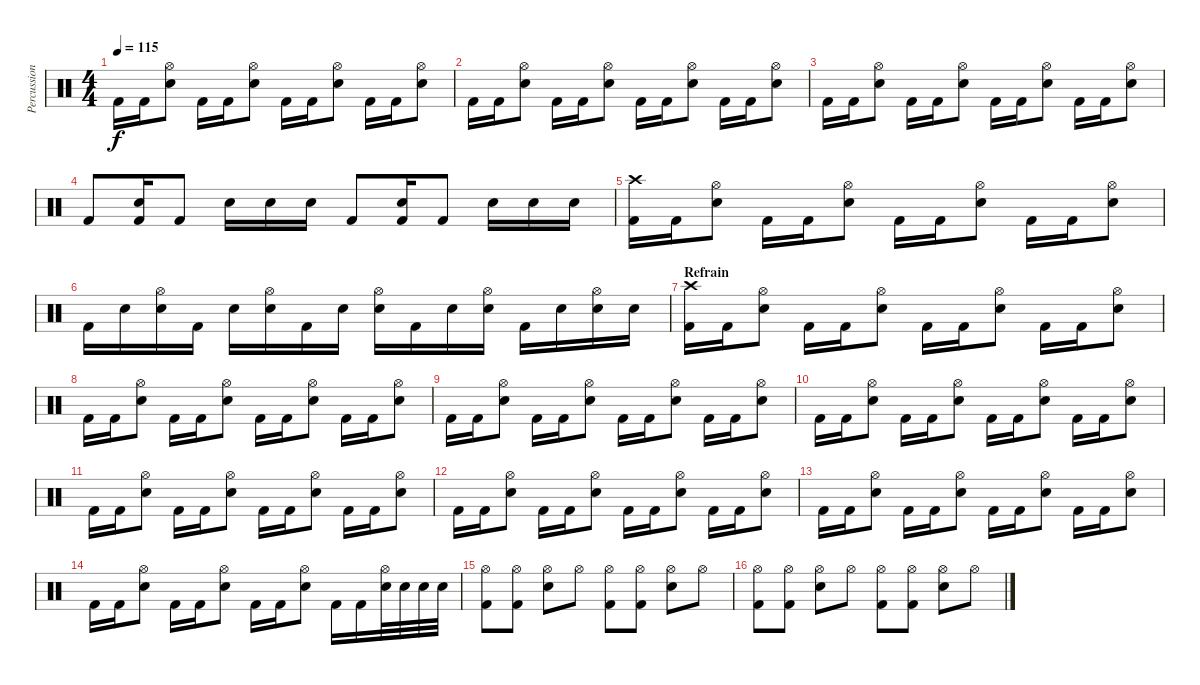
\track ("Percussions" "Percussion") {instrument percussion}
\staff {score}
\articulation defaults
\ts (4 4)
\tempo 115
\clef neutral
\ks c "Kick (hit) 2".16{dy f} "Kick (hit) 2".16
("Hi-Hat (open)" "Snare (hit) 2").8 "Kick (hit) 2".16 "Kick (hit) 2".16 ("Hi-Hat (open)" "Snare (hit) 2").8 "Kick (hit) 2".16 "Kick (hit) 2".16 ("Hi-Hat (open)" "Snare (hit) 2").8 "Kick (hit) 2".16 "Kick (hit) 2".16 ("Hi-Hat (open)" "Snare (hit) 2").8 |
"Kick (hit) 2".16 "Kick (hit) 2".16 ("Hi-Hat (open)" "Snare (hit) 2").8 "Kick (hit) 2".16 "Kick (hit) 2".16 ("Hi-Hat (open)" "Snare (hit) 2").8 "Kick (hit) 2".16 "Kick (hit) 2".16 ("Hi-Hat (open)" "Snare (hit) 2").8 "Kick (hit) 2".16 "Kick (hit) 2".16 ("Hi-Hat (open)" "Snare (hit) 2").8 |
"Kick (hit) 2".16 "Kick (hit) 2".16 ("Hi-Hat (open)" "Snare (hit) 2").8 "Kick (hit) 2".16 "Kick (hit) 2".16 ("Hi-Hat (open)" "Snare (hit) 2").8 "Kick (hit) 2".16 "Kick (hit) 2".16 ("Hi-Hat (open)" "Snare (hit) 2").8 "Kick (hit) 2".16 "Kick (hit) 2".16 ("Hi-Hat (open)" "Snare (hit) 2").8 |
"Kick (hit) 2".8 ("Snare (hit) 2" "Kick (hit) 2").16 "Kick (hit) 2".8 "Snare (hit) 2".16 "Snare (hit) 2".16 "Snare (hit) 2".16 "Kick (hit) 2".8 ("Snare (hit) 2" "Kick (hit) 2").16 "Kick (hit) 2".8 "Snare (hit) 2".16 "Snare (hit) 2".16 "Snare (hit) 2".16 |
("Crash high (hit)" "Kick (hit) 2").16 "Kick (hit) 2".16 ("Hi-Hat (open)" "Snare (hit) 2").8 "Kick (hit) 2".16 "Kick (hit) 2".16 ("Hi-Hat (open)" "Snare (hit) 2").8 "Kick (hit) 2".16 "Kick (hit) 2".16 ("Hi-Hat (open)" "Snare (hit) 2").8 "Kick (hit) 2".16 "Kick (hit) 2".16 ("Hi-Hat (open)" "Snare (hit) 2").8 |
"Kick (hit) 2".16 "Snare (hit) 2".16 ("Hi-Hat (open)" "Snare (hit) 2").16 "Kick (hit) 2".16 "Snare (hit) 2".16 ("Hi-Hat (open)" "Snare (hit) 2").16 "Kick (hit) 2".16 "Snare (hit) 2".16 ("Hi-Hat (open)" "Snare (hit) 2").16 "Kick (hit) 2".16 "Snare (hit) 2".16 ("Hi-Hat (open)" "Snare (hit) 2").16 "Kick (hit) 2".16 "Snare (hit) 2".16 ("Hi-Hat (open)" "Snare (hit) 2").16 "Snare (hit) 2".16 |
\section ("" "Refrain")
("Crash high (hit)" "Kick (hit) 2").16 "Kick (hit) 2".16 ("Hi-Hat (open)" "Snare (hit) 2").8 "Kick (hit) 2".16 "Kick (hit) 2".16 ("Hi-Hat (open)" "Snare (hit) 2").8 "Kick (hit) 2".16 "Kick (hit) 2".16 ("Hi-Hat (open)" "Snare (hit) 2").8 "Kick (hit) 2".16 "Kick (hit) 2".16 ("Hi-Hat (open)" "Snare (hit) 2").8 |
"Kick (hit) 2".16 "Kick (hit) 2".16 ("Hi-Hat (open)" "Snare (hit) 2").8 "Kick (hit) 2".16 "Kick (hit) 2".16 ("Hi-Hat (open)" "Snare (hit) 2").8 "Kick (hit) 2".16 "Kick (hit) 2".16 ("Hi-Hat (open)" "Snare (hit) 2").8 "Kick (hit) 2".16 "Kick (hit) 2".16 ("Hi-Hat (open)" "Snare (hit) 2").8 |
"Kick (hit) 2".16 "Kick (hit) 2".16 ("Hi-Hat (open)" "Snare (hit) 2").8 "Kick (hit) 2".16 "Kick (hit) 2".16 ("Hi-Hat (open)" "Snare (hit) 2").8 "Kick (hit) 2".16 "Kick (hit) 2".16 ("Hi-Hat (open)" "Snare (hit) 2").8 "Kick (hit) 2".16 "Kick (hit) 2".16 ("Hi-Hat (open)" "Snare (hit) 2").8 |
"Kick (hit) 2".16 "Kick (hit) 2".16 ("Hi-Hat (open)" "Snare (hit) 2").8 "Kick (hit) 2".16 "Kick (hit) 2".16 ("Hi-Hat (open)" "Snare (hit) 2").8 "Kick (hit) 2".16 "Kick (hit) 2".16 ("Hi-Hat (open)" "Snare (hit) 2").8 "Kick (hit) 2".16 "Kick (hit) 2".16 ("Hi-Hat (open)" "Snare (hit) 2").8 |
"Kick (hit) 2".16 "Kick (hit) 2".16 ("Hi-Hat (open)" "Snare (hit) 2").8 "Kick (hit) 2".16 "Kick (hit) 2".16 ("Hi-Hat (open)" "Snare (hit) 2").8 "Kick (hit) 2".16 "Kick (hit) 2".16 ("Hi-Hat (open)" "Snare (hit) 2").8 "Kick (hit) 2".16 "Kick (hit) 2".16 ("Hi-Hat (open)" "Snare (hit) 2").8 |
"Kick (hit) 2".16 "Kick (hit) 2".16 ("Hi-Hat (open)" "Snare (hit) 2").8 "Kick (hit) 2".16 "Kick (hit) 2".16 ("Hi-Hat (open)" "Snare (hit) 2").8 "Kick (hit) 2".16 "Kick (hit) 2".16 ("Hi-Hat (open)" "Snare (hit) 2").8 "Kick (hit) 2".16 "Kick (hit) 2".16 ("Hi-Hat (open)" "Snare (hit) 2").8 |
"Kick (hit) 2".16 "Kick (hit) 2".16 ("Hi-Hat (open)" "Snare (hit) 2").8 "Kick (hit) 2".16 "Kick (hit) 2".16 ("Hi-Hat (open)" "Snare (hit) 2").8 "Kick (hit) 2".16 "Kick (hit) 2".16 ("Hi-Hat (open)" "Snare (hit) 2").8 "Kick (hit) 2".16 "Kick (hit) 2".16 ("Hi-Hat (open)" "Snare (hit) 2").8 |
"Kick (hit) 2".16 "Kick (hit) 2".16 ("Hi-Hat (open)" "Snare (hit) 2").8 "Kick (hit) 2".16 "Kick (hit) 2".16 ("Hi-Hat (open)" "Snare (hit) 2").8 "Kick (hit) 2".16 "Kick (hit) 2".16 ("Hi-Hat (open)" "Snare (hit) 2").8 "Kick (hit) 2".16 "Kick (hit) 2".16 ("Hi-Hat (open)" "Snare (hit) 2").32 "Snare (hit) 2".32 "Snare (hit) 2".32 "Snare (hit) 2".32 |
\section ("" "")
("Hi-Hat (open)" "Kick (hit) 2").8 ("Hi-Hat (open)" "Kick (hit) 2").8 ("Hi-Hat (open)" "Snare (hit) 2").8 "Hi-Hat (open)".8 ("Hi-Hat (open)" "Kick (hit) 2").8 ("Hi-Hat (open)" "Kick (hit) 2").8 ("Hi-Hat (open)" "Snare (hit) 2").8 "Hi-Hat (open)".8 |
("Hi-Hat (open)" "Kick (hit) 2").8 ("Hi-Hat (open)" "Kick (hit) 2").8 ("Hi-Hat (open)" "Snare (hit) 2").8 "Hi-Hat (open)".8 ("Hi-Hat (open)" "Kick (hit) 2").8 ("Hi-Hat (open)" "Kick (hit) 2").8 ("Hi-Hat (open)" "Snare (hit) 2").8 "Hi-Hat (open)".8
